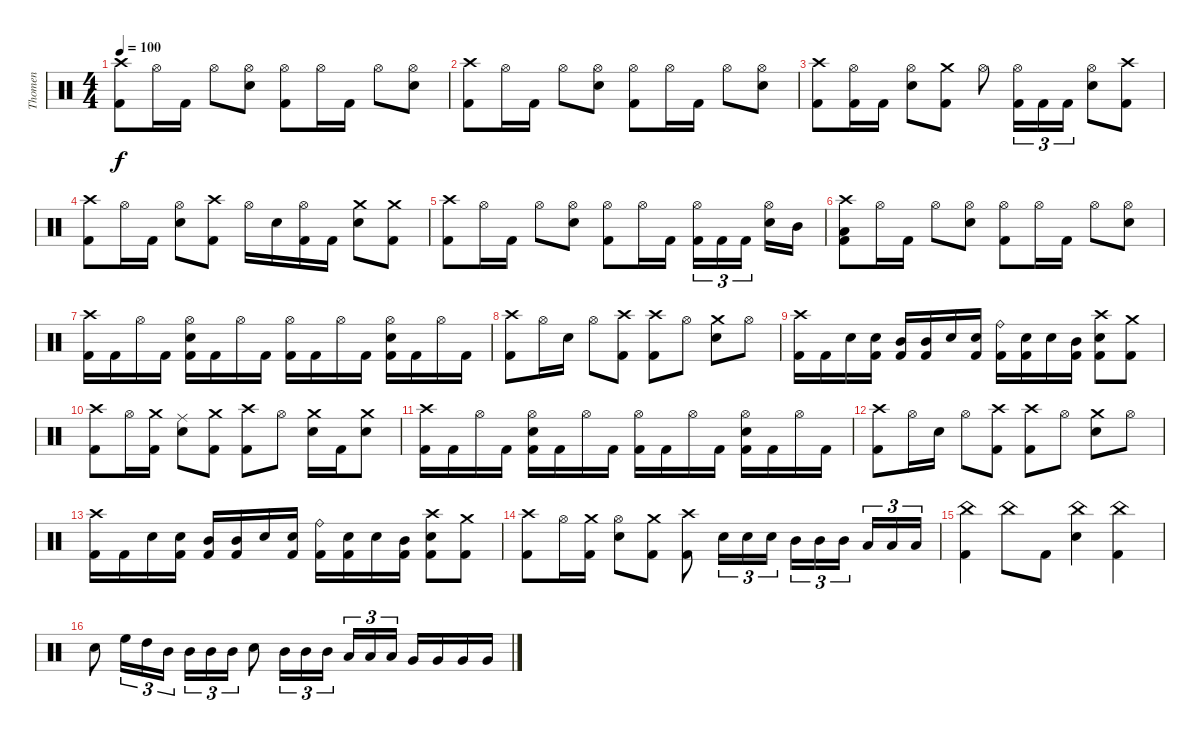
\track ("Thomen" "Thomen") {instrument percussion}
\staff {score}
\articulation defaults
\ts (4 4)
\tempo 100
\clef neutral
\ks c
("Crash high (hit)" "Kick (hit) 2").8{dy f} "Hi-Hat (open)".16 "Kick (hit) 2".16 "Hi-Hat (open)".8 ("Hi-Hat (open)" "Snare (hit) 2").8 ("Hi-Hat (open)" "Kick (hit) 2").8 "Hi-Hat (open)".16 "Kick (hit) 2".16 "Hi-Hat (open)".8 ("Hi-Hat (open)" "Snare (hit) 2").8 |
("Crash high (hit)" "Kick (hit) 2").8 "Hi-Hat (open)".16 "Kick (hit) 2".16 "Hi-Hat (open)".8 ("Hi-Hat (open)" "Snare (hit) 2").8 ("Hi-Hat (open)" "Kick (hit) 2").8 "Hi-Hat (open)".16 "Kick (hit) 2".16 "Hi-Hat (open)".8 ("Hi-Hat (open)" "Snare (hit) 2").8 |
("Crash high (hit)" "Kick (hit) 2").8 ("Hi-Hat (open)" "Kick (hit) 2").16 "Kick (hit) 2".16 ("Hi-Hat (open)" "Snare (hit) 2").8 ("Crash medium (hit)" "Kick (hit) 2").8 "Hi-Hat (open)".8 ("Hi-Hat (open)" "Kick (hit) 2").16{tu (3 2)} "Kick (hit) 2".16{tu (3 2)} "Kick (hit) 2".16{tu (3 2)} ("Hi-Hat (open)" "Snare (hit) 2").8 ("Crash high (hit)" "Kick (hit) 2").8 |
("Crash high (hit)" "Kick (hit) 2").8 "Hi-Hat (open)".16 "Kick (hit) 2".16 ("Hi-Hat (open)" "Snare (hit) 2").8 ("Crash high (hit)" "Kick (hit) 2").8 "Hi-Hat (open)".16 "Snare (hit) 2".16 ("Hi-Hat (open)" "Kick (hit) 2").16 "Kick (hit) 2".16 ("Crash medium (hit)" "Snare (hit) 2").8 ("Crash medium (hit)" "Kick (hit) 2").8 |
("Crash high (hit)" "Kick (hit) 2").8 "Hi-Hat (open)".16 "Kick (hit) 2".16 "Hi-Hat (open)".8 ("Hi-Hat (open)" "Snare (hit) 2").8 ("Hi-Hat (open)" "Kick (hit) 2").8 "Hi-Hat (open)".16 "Kick (hit) 2".16 ("Hi-Hat (open)" "Kick (hit) 2").16{tu (3 2)} "Kick (hit) 2".16{tu (3 2)} "Kick (hit) 2".16{tu (3 2)} ("Hi-Hat (open)" "Snare (hit) 2").16 "Mid Tom (hit)".16 |
("Crash high (hit)" "Low Tom (hit)" "Kick (hit) 2").8 "Hi-Hat (open)".16 "Kick (hit) 2".16 "Hi-Hat (open)".8 ("Hi-Hat (open)" "Snare (hit) 2").8 ("Hi-Hat (open)" "Kick (hit) 2").8 "Hi-Hat (open)".16 "Kick (hit) 2".16 "Hi-Hat (open)".8 ("Hi-Hat (open)" "Snare (hit) 2").8 |
("Crash high (hit)" "Kick (hit) 2").16 "Kick (hit) 2".16 "Hi-Hat (open)".16 "Kick (hit) 2".16 ("Hi-Hat (open)" "Snare (hit) 2" "Kick (hit) 2").16 "Kick (hit) 2".16 "Hi-Hat (open)".16 "Kick (hit) 2".16 ("Hi-Hat (open)" "Kick (hit) 2").16 "Kick (hit) 2".16 "Hi-Hat (open)".16 "Kick (hit) 2".16 ("Hi-Hat (open)" "Snare (hit) 2" "Kick (hit) 2").16 "Kick (hit) 2".16 "Hi-Hat (open)".16 "Kick (hit) 2".16 |
("Crash high (hit)" "Kick (hit) 2").8 "Hi-Hat (open)".16 "Snare (hit) 2".16 "Hi-Hat (open)".8 ("Crash high (hit)" "Kick (hit) 2").8 ("Crash high (hit)" "Kick (hit) 2").8 "Hi-Hat (open)".8 ("Crash medium (hit)" "Snare (hit) 2").8 "Hi-Hat (open)".8 |
("Crash high (hit)" "Kick (hit) 2").16 "Kick (hit) 2".16 "Snare (hit) 2".16 ("Snare (hit) 2" "Kick (hit) 2").16 ("Mid Tom (hit)" "Kick (hit) 2").16 ("Mid Tom (hit)" "Kick (hit) 2").16 "Snare (hit) 2".16 ("Snare (hit) 2" "Kick (hit) 2").16 ("Ride (bell)" "Kick (hit) 2").16 ("Snare (hit) 2" "Kick (hit) 2").16 "Snare (hit) 2".16 ("Mid Tom (hit)" "Kick (hit) 2").16 ("Crash high (hit)" "Snare (hit) 2" "Kick (hit) 2").8 ("Crash medium (hit)" "Kick (hit) 2").8 |
("Crash high (hit)" "Kick (hit) 2").8 "Hi-Hat (open)".16 ("Crash medium (hit)" "Kick (hit) 2").16 ("Ride (middle)" "Snare (hit) 2").8 ("Crash medium (hit)" "Kick (hit) 2").8 ("Crash high (hit)" "Kick (hit) 2").8 "Hi-Hat (open)".8 ("Crash medium (hit)" "Snare (hit) 2").16 "Kick (hit) 2".16 ("Crash medium (hit)" "Snare (hit) 2").8 |
("Crash high (hit)" "Kick (hit) 2").16 "Kick (hit) 2".16 "Hi-Hat (open)".16 "Kick (hit) 2".16 ("Hi-Hat (open)" "Snare (hit) 2" "Kick (hit) 2").16 "Kick (hit) 2".16 "Hi-Hat (open)".16 "Kick (hit) 2".16 ("Hi-Hat (open)" "Kick (hit) 2").16 "Kick (hit) 2".16 "Hi-Hat (open)".16 "Kick (hit) 2".16 ("Hi-Hat (open)" "Snare (hit) 2" "Kick (hit) 2").16 "Kick (hit) 2".16 "Hi-Hat (open)".16 "Kick (hit) 2".16 |
("Crash high (hit)" "Kick (hit) 2").8 "Hi-Hat (open)".16 "Snare (hit) 2".16 "Hi-Hat (open)".8 ("Crash high (hit)" "Kick (hit) 2").8 ("Crash high (hit)" "Kick (hit) 2").8 "Hi-Hat (open)".8 ("Crash medium (hit)" "Snare (hit) 2").8 "Hi-Hat (open)".8 |
("Crash high (hit)" "Kick (hit) 2").16 "Kick (hit) 2".16 "Snare (hit) 2".16 ("Snare (hit) 2" "Kick (hit) 2").16 ("Mid Tom (hit)" "Kick (hit) 2").16 ("Mid Tom (hit)" "Kick (hit) 2").16 "Snare (hit) 2".16 ("Snare (hit) 2" "Kick (hit) 2").16 ("Ride (bell)" "Kick (hit) 2").16 ("Snare (hit) 2" "Kick (hit) 2").16 "Snare (hit) 2".16 ("Mid Tom (hit)" "Kick (hit) 2").16 ("Crash high (hit)" "Snare (hit) 2" "Kick (hit) 2").8 ("Crash medium (hit)" "Kick (hit) 2").8 |
("Crash high (hit)" "Kick (hit) 2").8 "Hi-Hat (open)".16 ("Crash medium (hit)" "Kick (hit) 2").16 ("Hi-Hat (open)" "Snare (hit) 2").8 ("Crash medium (hit)" "Kick (hit) 2").8 ("Crash high (hit)" "Kick (hit) 2").8 "Snare (hit) 2".16{tu (3 2)} "Snare (hit) 2".16{tu (3 2)} "Snare (hit) 2".16{tu (3 2)} "Mid Tom (hit)".16{tu (3 2)} "Mid Tom (hit)".16{tu (3 2)} "Mid Tom (hit)".16{tu (3 2)} "Low Tom (hit)".16{tu (3 2)} "Low Tom (hit)".16{tu (3 2)} "Low Tom (hit)".16{tu (3 2)} |
("China (hit)" "Kick (hit) 2").4 "China (hit)".8 "Kick (hit) 2".8 ("China (hit)" "Snare (hit) 2").4 ("China (hit)" "Kick (hit) 2").4 |
"Snare (hit) 2".8 "High Floor Tom (hit)".16{tu (3 2)} "High Tom (hit)".16{tu (3 2)} "Mid Tom (hit)".16{tu (3 2)} "Mid Tom (hit)".16{tu (3 2)} "Mid Tom (hit)".16{tu (3 2)} "Mid Tom (hit)".16{tu (3 2)} "Snare (hit) 2".8 "Mid Tom (hit)".16{tu (3 2)} "Mid Tom (hit)".16{tu (3 2)} "Mid Tom (hit)".16{tu (3 2)} "Low Tom (hit)".16{tu (3 2)} "Low Tom (hit)".16{tu (3 2)} "Low Tom (hit)".16{tu (3 2)} "Very Low Tom (hit)".16 "Very Low Tom (hit)".16 "Very Low Tom (hit)".16 "Very Low Tom (hit)".16
